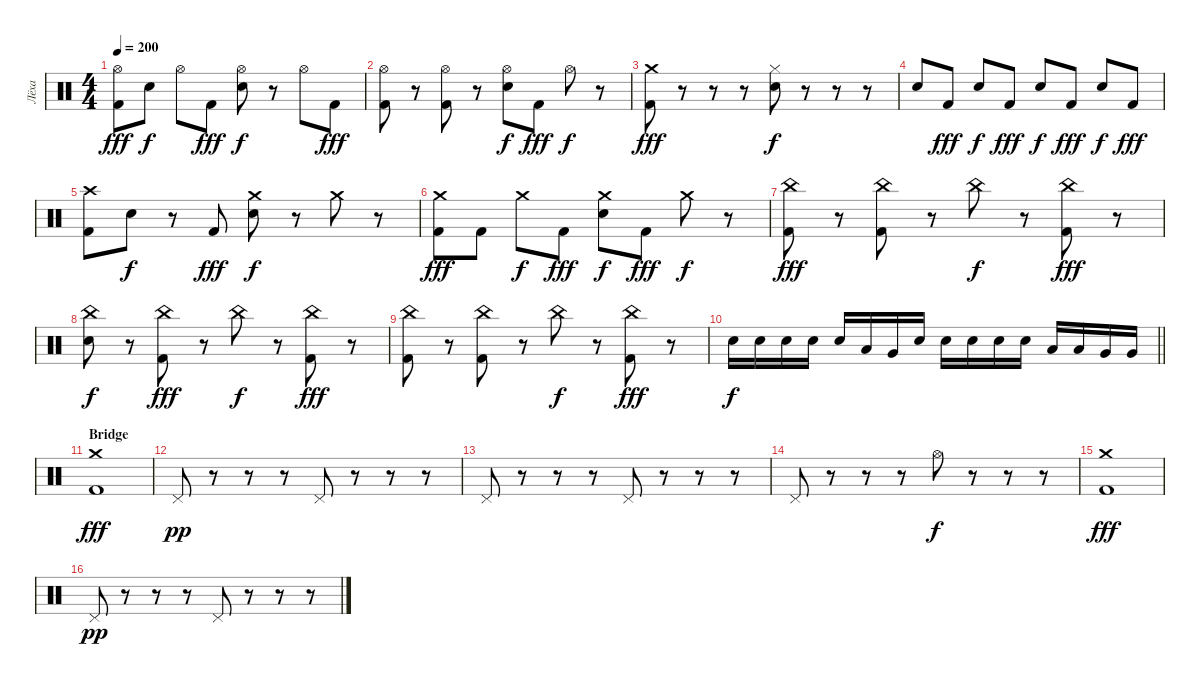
\track ("Лёха" "Лёха") {instrument percussion}
\staff {score}
\articulation defaults
\ts (4 4)
\tempo 200
\clef neutral
\ks c
("Hi-Hat (open)" "Kick (hit) 2").8{dy fff} "Electric Snare (hit)".8{dy f} "Hi-Hat (open)".8 "Kick (hit) 2".8{dy fff} ("Hi-Hat (open)" "Electric Snare (hit)").8{dy f} r.8 "Hi-Hat (open)".8 "Kick (hit) 2".8{dy fff} |
("Hi-Hat (open)" "Kick (hit) 2").8 r.8 ("Hi-Hat (open)" "Kick (hit) 2").8 r.8 ("Hi-Hat (open)" "Electric Snare (hit)").8{dy f} "Kick (hit) 2".8{dy fff} "Hi-Hat (open)".8{dy f} r.8 |
("Crash medium (hit)" "Kick (hit) 2").8{dy fff} r.8 r.8 r.8 ("Hi-Hat (closed)" "Electric Snare (hit)").8{dy f} r.8 r.8 r.8 |
"Electric Snare (hit)".8 "Kick (hit) 2".8{dy fff} "Electric Snare (hit)".8{dy f} "Kick (hit) 2".8{dy fff} "Electric Snare (hit)".8{dy f} "Kick (hit) 2".8{dy fff} "Electric Snare (hit)".8{dy f} "Kick (hit) 2".8{dy fff} |
("Crash high (hit)" "Kick (hit) 2").8 "Electric Snare (hit)".8{dy f} r.8 "Kick (hit) 2".8{dy fff} ("Crash medium (hit)" "Electric Snare (hit)").8{dy f} r.8 "Crash medium (hit)".8 r.8 |
("Crash medium (hit)" "Kick (hit) 2").8{dy fff} "Kick (hit) 2".8 "Crash medium (hit)".8{dy f} "Kick (hit) 2".8{dy fff} ("Crash medium (hit)" "Electric Snare (hit)").8{dy f} "Kick (hit) 2".8{dy fff} "Crash medium (hit)".8{dy f} r.8 |
("China (hit)" "Kick (hit) 2").8{dy fff} r.8 ("China (hit)" "Kick (hit) 2").8 r.8 "China (hit)".8{dy f} r.8 ("China (hit)" "Kick (hit) 2").8{dy fff} r.8 |
("China (hit)" "Electric Snare (hit)").8{dy f} r.8 ("China (hit)" "Kick (hit) 2").8{dy fff} r.8 "China (hit)".8{dy f} r.8 ("China (hit)" "Kick (hit) 2").8{dy fff} r.8 |
("China (hit)" "Kick (hit) 2").8 r.8 ("China (hit)" "Kick (hit) 2").8 r.8 "China (hit)".8{dy f} r.8 ("China (hit)" "Kick (hit) 2").8{dy fff} r.8 |
\barLineRight lightlight "Electric Snare (hit)".16{dy f} "Electric Snare (hit)".16 "Electric Snare (hit)".16 "Electric Snare (hit)".16 "Electric Snare (hit)".16 "Low Tom (hit)".16 "Very Low Tom (hit)".16 "Electric Snare (hit)".16 "Electric Snare (hit)".16 "Electric Snare (hit)".16 "Electric Snare (hit)".16 "Electric Snare (hit)".16 "Low Tom (hit)".16 "Low Tom (hit)".16 "Very Low Tom (hit)".16 "Very Low Tom (hit)".16
|
\section ("" "Bridge")
("Crash medium (hit)" "Kick (hit) 2").1{dy fff} |
"Pedal Hi-Hat (hit)".8{dy pp} r.8 r.8 r.8 "Pedal Hi-Hat (hit)".8 r.8 r.8 r.8 |
"Pedal Hi-Hat (hit)".8 r.8 r.8 r.8 "Pedal Hi-Hat (hit)".8 r.8 r.8 r.8 |
"Pedal Hi-Hat (hit)".8 r.8 r.8 r.8 "Hi-Hat (open)".8{dy f} r.8 r.8 r.8 |
("Crash medium (hit)" "Kick (hit) 2").1{dy fff} |
"Pedal Hi-Hat (hit)".8{dy pp} r.8 r.8 r.8 "Pedal Hi-Hat (hit)".8 r.8 r.8 r.8
